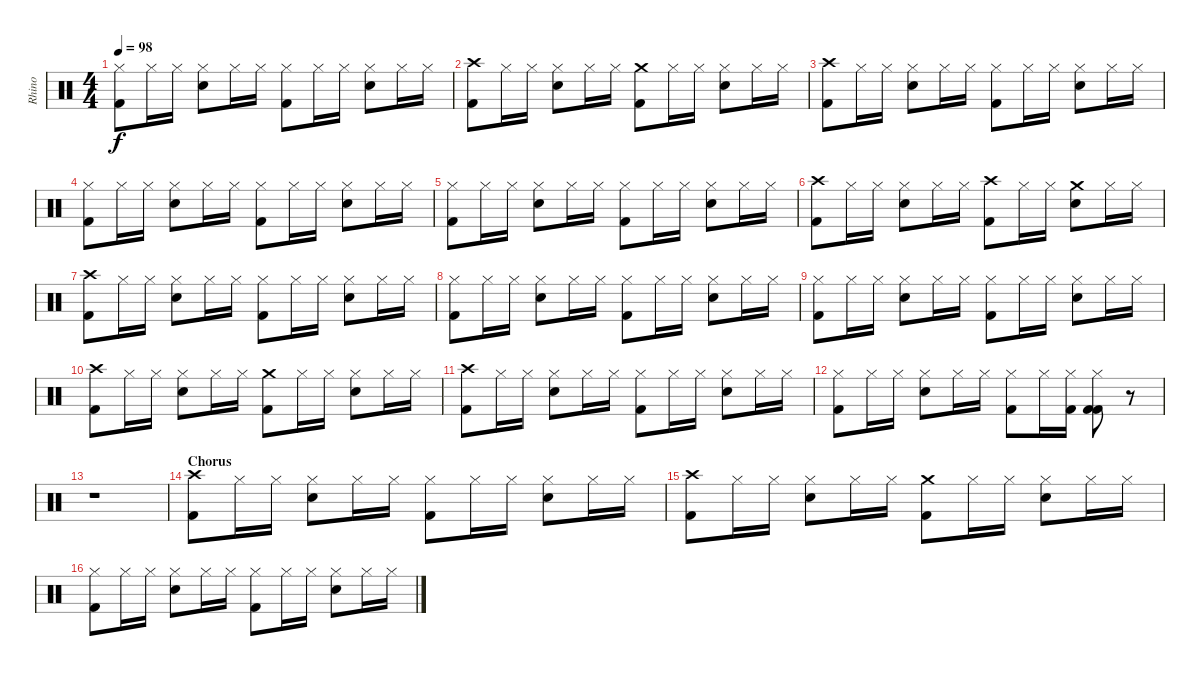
\track ("Rhino" "Rhino") {instrument percussion}
\staff {score}
\articulation defaults
\ts (4 4)
\tempo 98
\clef neutral
\ks c
("Hi-Hat (closed)" "Kick (hit) 2").8{dy f} "Hi-Hat (closed)".16 "Hi-Hat (closed)".16 ("Hi-Hat (closed)" "Snare (hit) 2").8 "Hi-Hat (closed)".16 "Hi-Hat (closed)".16 ("Hi-Hat (closed)" "Kick (hit) 2").8 "Hi-Hat (closed)".16 "Hi-Hat (closed)".16 ("Hi-Hat (closed)" "Snare (hit) 2").8 "Hi-Hat (closed)".16 "Hi-Hat (closed)".16 |
("Crash high (hit)" "Kick (hit) 2").8 "Hi-Hat (closed)".16 "Hi-Hat (closed)".16 ("Hi-Hat (closed)" "Snare (hit) 2").8 "Hi-Hat (closed)".16 "Hi-Hat (closed)".16 ("Crash medium (hit)" "Kick (hit) 2").8 "Hi-Hat (closed)".16 "Hi-Hat (closed)".16 ("Hi-Hat (closed)" "Snare (hit) 2").8 "Hi-Hat (closed)".16 "Hi-Hat (closed)".16 |
("Crash high (hit)" "Kick (hit) 2").8 "Hi-Hat (closed)".16 "Hi-Hat (closed)".16 ("Hi-Hat (closed)" "Snare (hit) 2").8 "Hi-Hat (closed)".16 "Hi-Hat (closed)".16 ("Hi-Hat (closed)" "Kick (hit) 2").8 "Hi-Hat (closed)".16 "Hi-Hat (closed)".16 ("Hi-Hat (closed)" "Snare (hit) 2").8 "Hi-Hat (closed)".16 "Hi-Hat (closed)".16 |
("Hi-Hat (closed)" "Kick (hit) 2").8 "Hi-Hat (closed)".16 "Hi-Hat (closed)".16 ("Hi-Hat (closed)" "Snare (hit) 2").8 "Hi-Hat (closed)".16 "Hi-Hat (closed)".16 ("Hi-Hat (closed)" "Kick (hit) 2").8 "Hi-Hat (closed)".16 "Hi-Hat (closed)".16 ("Hi-Hat (closed)" "Snare (hit) 2").8 "Hi-Hat (closed)".16 "Hi-Hat (closed)".16 |
("Hi-Hat (closed)" "Kick (hit) 2").8 "Hi-Hat (closed)".16 "Hi-Hat (closed)".16 ("Hi-Hat (closed)" "Snare (hit) 2").8 "Hi-Hat (closed)".16 "Hi-Hat (closed)".16 ("Hi-Hat (closed)" "Kick (hit) 2").8 "Hi-Hat (closed)".16 "Hi-Hat (closed)".16 ("Hi-Hat (closed)" "Snare (hit) 2").8 "Hi-Hat (closed)".16 "Hi-Hat (closed)".16 |
("Crash high (hit)" "Kick (hit) 2").8 "Hi-Hat (closed)".16 "Hi-Hat (closed)".16 ("Hi-Hat (closed)" "Snare (hit) 2").8 "Hi-Hat (closed)".16 "Hi-Hat (closed)".16 ("Crash high (hit)" "Kick (hit) 2").8 "Hi-Hat (closed)".16 "Hi-Hat (closed)".16 ("Crash medium (hit)" "Snare (hit) 2").8 "Hi-Hat (closed)".16 "Hi-Hat (closed)".16 |
("Crash high (hit)" "Kick (hit) 2").8 "Hi-Hat (closed)".16 "Hi-Hat (closed)".16 ("Hi-Hat (closed)" "Snare (hit) 2").8 "Hi-Hat (closed)".16 "Hi-Hat (closed)".16 ("Hi-Hat (closed)" "Kick (hit) 2").8 "Hi-Hat (closed)".16 "Hi-Hat (closed)".16 ("Hi-Hat (closed)" "Snare (hit) 2").8 "Hi-Hat (closed)".16 "Hi-Hat (closed)".16 |
("Hi-Hat (closed)" "Kick (hit) 2").8 "Hi-Hat (closed)".16 "Hi-Hat (closed)".16 ("Hi-Hat (closed)" "Snare (hit) 2").8 "Hi-Hat (closed)".16 "Hi-Hat (closed)".16 ("Hi-Hat (closed)" "Kick (hit) 2").8 "Hi-Hat (closed)".16 "Hi-Hat (closed)".16 ("Hi-Hat (closed)" "Snare (hit) 2").8 "Hi-Hat (closed)".16 "Hi-Hat (closed)".16 |
("Hi-Hat (closed)" "Kick (hit) 2").8 "Hi-Hat (closed)".16 "Hi-Hat (closed)".16 ("Hi-Hat (closed)" "Snare (hit) 2").8 "Hi-Hat (closed)".16 "Hi-Hat (closed)".16 ("Hi-Hat (closed)" "Kick (hit) 2").8 "Hi-Hat (closed)".16 "Hi-Hat (closed)".16 ("Hi-Hat (closed)" "Snare (hit) 2").8 "Hi-Hat (closed)".16 "Hi-Hat (closed)".16 |
("Crash high (hit)" "Kick (hit) 2").8 "Hi-Hat (closed)".16 "Hi-Hat (closed)".16 ("Hi-Hat (closed)" "Snare (hit) 2").8 "Hi-Hat (closed)".16 "Hi-Hat (closed)".16 ("Crash medium (hit)" "Kick (hit) 2").8 "Hi-Hat (closed)".16 "Hi-Hat (closed)".16 ("Hi-Hat (closed)" "Snare (hit) 2").8 "Hi-Hat (closed)".16 "Hi-Hat (closed)".16 |
("Crash high (hit)" "Kick (hit) 2").8 "Hi-Hat (closed)".16 "Hi-Hat (closed)".16 ("Hi-Hat (closed)" "Snare (hit) 2").8 "Hi-Hat (closed)".16 "Hi-Hat (closed)".16 ("Hi-Hat (closed)" "Kick (hit) 2").8 "Hi-Hat (closed)".16 "Hi-Hat (closed)".16 ("Hi-Hat (closed)" "Snare (hit) 2").8 "Hi-Hat (closed)".16 "Hi-Hat (closed)".16 |
("Hi-Hat (closed)" "Kick (hit) 2").8 "Hi-Hat (closed)".16 "Hi-Hat (closed)".16 ("Hi-Hat (closed)" "Snare (hit) 2").8 "Hi-Hat (closed)".16 "Hi-Hat (closed)".16 ("Hi-Hat (closed)" "Kick (hit) 2").8 "Hi-Hat (closed)".16 ("Hi-Hat (closed)" "Kick (hit) 2").16 ("Hi-Hat (closed)" "Kick (hit) 2" "Kick (hit) 2").8 r.8 |
r.1 |
\section ("" "Chorus")
("Crash high (hit)" "Kick (hit) 2").8 "Hi-Hat (closed)".16 "Hi-Hat (closed)".16 ("Hi-Hat (closed)" "Snare (hit) 2").8 "Hi-Hat (closed)".16 "Hi-Hat (closed)".16 ("Hi-Hat (closed)" "Kick (hit) 2").8 "Hi-Hat (closed)".16 "Hi-Hat (closed)".16 ("Hi-Hat (closed)" "Snare (hit) 2").8 "Hi-Hat (closed)".16 "Hi-Hat (closed)".16 |
("Crash high (hit)" "Kick (hit) 2").8 "Hi-Hat (closed)".16 "Hi-Hat (closed)".16 ("Hi-Hat (closed)" "Snare (hit) 2").8 "Hi-Hat (closed)".16 "Hi-Hat (closed)".16 ("Crash medium (hit)" "Kick (hit) 2").8 "Hi-Hat (closed)".16 "Hi-Hat (closed)".16 ("Hi-Hat (closed)" "Snare (hit) 2").8 "Hi-Hat (closed)".16 "Hi-Hat (closed)".16 |
("Hi-Hat (closed)" "Kick (hit) 2").8 "Hi-Hat (closed)".16 "Hi-Hat (closed)".16 ("Hi-Hat (closed)" "Snare (hit) 2").8 "Hi-Hat (closed)".16 "Hi-Hat (closed)".16 ("Hi-Hat (closed)" "Kick (hit) 2").8 "Hi-Hat (closed)".16 "Hi-Hat (closed)".16 ("Hi-Hat (closed)" "Snare (hit) 2").8 "Hi-Hat (closed)".16 "Hi-Hat (closed)".16
